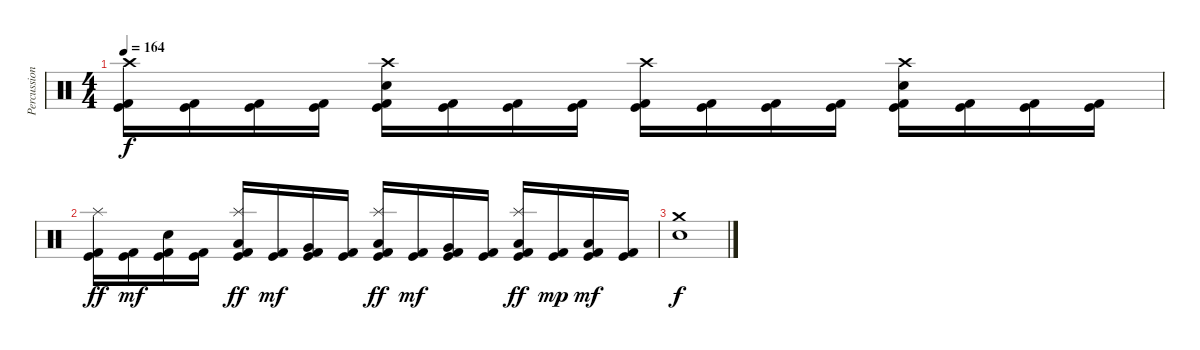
\track ("Percussion" "Percussion") {instrument percussion}
\staff {score}
\articulation defaults
\ts (4 4)
\tempo 164
\clef neutral
\ks c
("Crash high (hit)" "Kick (hit) 2" "Kick (hit)").16{dy f} ("Kick (hit) 2" "Kick (hit)").16 ("Kick (hit) 2" "Kick (hit)").16 ("Kick (hit) 2" "Kick (hit)").16 ("Crash high (hit)" "Electric Snare (hit)" "Kick (hit) 2" "Kick (hit)").16 ("Kick (hit) 2" "Kick (hit)").16 ("Kick (hit) 2" "Kick (hit)").16 ("Kick (hit) 2" "Kick (hit)").16 ("Crash high (hit)" "Kick (hit) 2" "Kick (hit)").16 ("Kick (hit) 2" "Kick (hit)").16 ("Kick (hit) 2" "Kick (hit)").16 ("Kick (hit) 2" "Kick (hit)").16 ("Crash high (hit)" "Electric Snare (hit)" "Kick (hit) 2" "Kick (hit)").16 ("Kick (hit) 2" "Kick (hit)").16 ("Kick (hit) 2" "Kick (hit)").16 ("Kick (hit) 2" "Kick (hit)").16 |
("Splash (hit)" "Kick (hit) 2" "Kick (hit)").16{dy ff} ("Kick (hit) 2" "Kick (hit)").16{dy mf} ("Electric Snare (hit)" "Kick (hit) 2" "Kick (hit)").16 ("Kick (hit) 2" "Kick (hit)").16 ("Splash (hit)" "Low Tom (hit)" "Kick (hit) 2" "Kick (hit)").16{dy ff} ("Kick (hit) 2" "Kick (hit)").16{dy mf} ("Very Low Tom (hit)" "Kick (hit) 2" "Kick (hit)").16 ("Kick (hit) 2" "Kick (hit)").16 ("Splash (hit)" "Low Floor Tom (hit)" "Kick (hit) 2" "Kick (hit)").16{dy ff} ("Kick (hit) 2" "Kick (hit)").16{dy mf} ("Very Low Tom (hit)" "Kick (hit) 2" "Kick (hit)").16 ("Kick (hit) 2" "Kick (hit)").16 ("Splash (hit)" "Low Floor Tom (hit)" "Kick (hit) 2" "Kick (hit)").16{dy ff} ("Kick (hit) 2" "Kick (hit)").16{dy mp} ("Low Floor Tom (hit)" "Kick (hit) 2" "Kick (hit)").16{dy mf} ("Kick (hit) 2" "Kick (hit)").16 |
("Crash medium (hit)" "Electric Snare (hit)").1{dy f}
